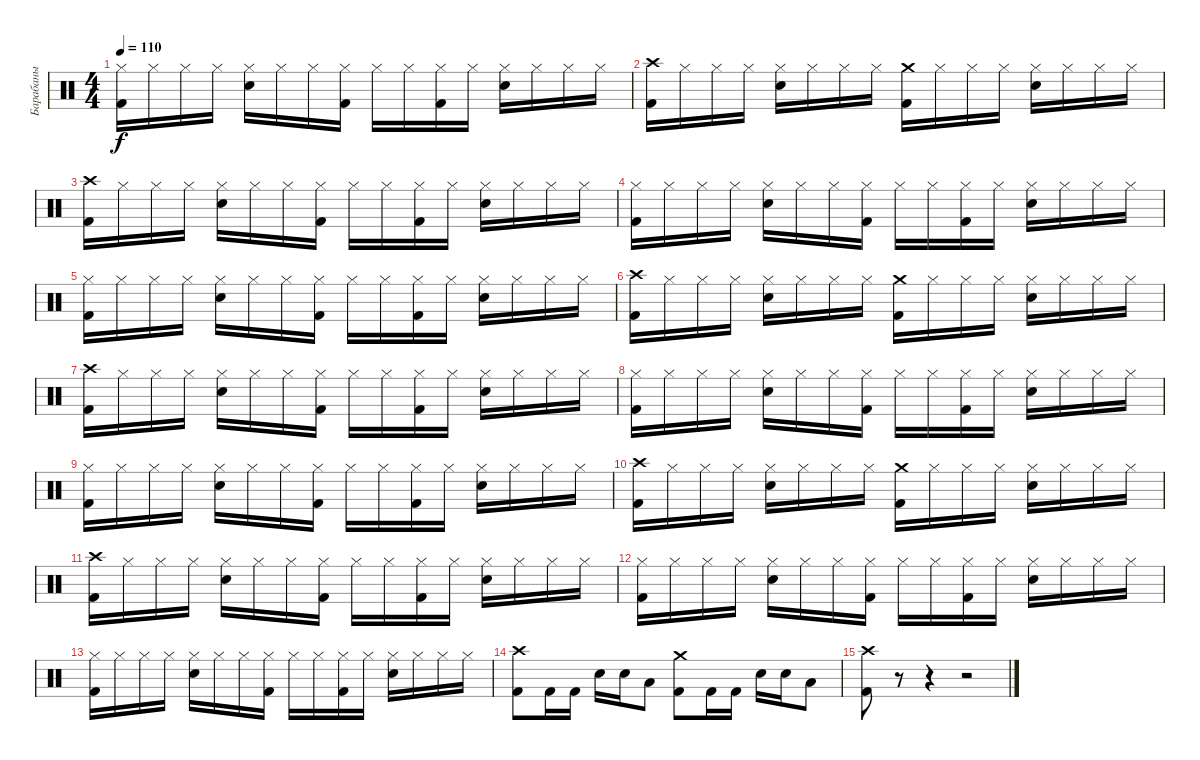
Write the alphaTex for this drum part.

\track ("Барабаны" "Барабаны") {instrument percussion}
\staff {score}
\articulation defaults
\ts (4 4)
\tempo 110
\clef neutral
\ks c
("Hi-Hat (closed)" "Kick (hit) 2").16{dy f} "Hi-Hat (closed)".16 "Hi-Hat (closed)".16 "Hi-Hat (closed)".16 ("Hi-Hat (closed)" "Snare (hit) 2").16 "Hi-Hat (closed)".16 "Hi-Hat (closed)".16 ("Hi-Hat (closed)" "Kick (hit) 2").16 "Hi-Hat (closed)".16 "Hi-Hat (closed)".16 ("Hi-Hat (closed)" "Kick (hit) 2").16 "Hi-Hat (closed)".16 ("Hi-Hat (closed)" "Snare (hit) 2").16 "Hi-Hat (closed)".16 "Hi-Hat (closed)".16 "Hi-Hat (closed)".16 |
("Crash high (hit)" "Kick (hit) 2").16 "Hi-Hat (closed)".16 "Hi-Hat (closed)".16 "Hi-Hat (closed)".16 ("Hi-Hat (closed)" "Snare (hit) 2").16 "Hi-Hat (closed)".16 "Hi-Hat (closed)".16 "Hi-Hat (closed)".16 ("Crash medium (hit)" "Kick (hit) 2").16 "Hi-Hat (closed)".16 "Hi-Hat (closed)".16 "Hi-Hat (closed)".16 ("Hi-Hat (closed)" "Snare (hit) 2").16 "Hi-Hat (closed)".16 "Hi-Hat (closed)".16 "Hi-Hat (closed)".16 |
("Crash high (hit)" "Kick (hit) 2").16 "Hi-Hat (closed)".16 "Hi-Hat (closed)".16 "Hi-Hat (closed)".16 ("Hi-Hat (closed)" "Snare (hit) 2").16 "Hi-Hat (closed)".16 "Hi-Hat (closed)".16 ("Hi-Hat (closed)" "Kick (hit) 2").16 "Hi-Hat (closed)".16 "Hi-Hat (closed)".16 ("Hi-Hat (closed)" "Kick (hit) 2").16 "Hi-Hat (closed)".16 ("Hi-Hat (closed)" "Snare (hit) 2").16 "Hi-Hat (closed)".16 "Hi-Hat (closed)".16 "Hi-Hat (closed)".16 |
("Hi-Hat (closed)" "Kick (hit) 2").16 "Hi-Hat (closed)".16 "Hi-Hat (closed)".16 "Hi-Hat (closed)".16 ("Hi-Hat (closed)" "Snare (hit) 2").16 "Hi-Hat (closed)".16 "Hi-Hat (closed)".16 ("Hi-Hat (closed)" "Kick (hit) 2").16 "Hi-Hat (closed)".16 "Hi-Hat (closed)".16 ("Hi-Hat (closed)" "Kick (hit) 2").16 "Hi-Hat (closed)".16 ("Hi-Hat (closed)" "Snare (hit) 2").16 "Hi-Hat (closed)".16 "Hi-Hat (closed)".16 "Hi-Hat (closed)".16 |
("Hi-Hat (closed)" "Kick (hit) 2").16 "Hi-Hat (closed)".16 "Hi-Hat (closed)".16 "Hi-Hat (closed)".16 ("Hi-Hat (closed)" "Snare (hit) 2").16 "Hi-Hat (closed)".16 "Hi-Hat (closed)".16 ("Hi-Hat (closed)" "Kick (hit) 2").16 "Hi-Hat (closed)".16 "Hi-Hat (closed)".16 ("Hi-Hat (closed)" "Kick (hit) 2").16 "Hi-Hat (closed)".16 ("Hi-Hat (closed)" "Snare (hit) 2").16 "Hi-Hat (closed)".16 "Hi-Hat (closed)".16 "Hi-Hat (closed)".16 |
("Crash high (hit)" "Kick (hit) 2").16 "Hi-Hat (closed)".16 "Hi-Hat (closed)".16 "Hi-Hat (closed)".16 ("Hi-Hat (closed)" "Snare (hit) 2").16 "Hi-Hat (closed)".16 "Hi-Hat (closed)".16 "Hi-Hat (closed)".16 ("Crash medium (hit)" "Kick (hit) 2").16 "Hi-Hat (closed)".16 "Hi-Hat (closed)".16 "Hi-Hat (closed)".16 ("Hi-Hat (closed)" "Snare (hit) 2").16 "Hi-Hat (closed)".16 "Hi-Hat (closed)".16 "Hi-Hat (closed)".16 |
("Crash high (hit)" "Kick (hit) 2").16 "Hi-Hat (closed)".16 "Hi-Hat (closed)".16 "Hi-Hat (closed)".16 ("Hi-Hat (closed)" "Snare (hit) 2").16 "Hi-Hat (closed)".16 "Hi-Hat (closed)".16 ("Hi-Hat (closed)" "Kick (hit) 2").16 "Hi-Hat (closed)".16 "Hi-Hat (closed)".16 ("Hi-Hat (closed)" "Kick (hit) 2").16 "Hi-Hat (closed)".16 ("Hi-Hat (closed)" "Snare (hit) 2").16 "Hi-Hat (closed)".16 "Hi-Hat (closed)".16 "Hi-Hat (closed)".16 |
("Hi-Hat (closed)" "Kick (hit) 2").16 "Hi-Hat (closed)".16 "Hi-Hat (closed)".16 "Hi-Hat (closed)".16 ("Hi-Hat (closed)" "Snare (hit) 2").16 "Hi-Hat (closed)".16 "Hi-Hat (closed)".16 ("Hi-Hat (closed)" "Kick (hit) 2").16 "Hi-Hat (closed)".16 "Hi-Hat (closed)".16 ("Hi-Hat (closed)" "Kick (hit) 2").16 "Hi-Hat (closed)".16 ("Hi-Hat (closed)" "Snare (hit) 2").16 "Hi-Hat (closed)".16 "Hi-Hat (closed)".16 "Hi-Hat (closed)".16 |
("Hi-Hat (closed)" "Kick (hit) 2").16 "Hi-Hat (closed)".16 "Hi-Hat (closed)".16 "Hi-Hat (closed)".16 ("Hi-Hat (closed)" "Snare (hit) 2").16 "Hi-Hat (closed)".16 "Hi-Hat (closed)".16 ("Hi-Hat (closed)" "Kick (hit) 2").16 "Hi-Hat (closed)".16 "Hi-Hat (closed)".16 ("Hi-Hat (closed)" "Kick (hit) 2").16 "Hi-Hat (closed)".16 ("Hi-Hat (closed)" "Snare (hit) 2").16 "Hi-Hat (closed)".16 "Hi-Hat (closed)".16 "Hi-Hat (closed)".16 |
("Crash high (hit)" "Kick (hit) 2").16 "Hi-Hat (closed)".16 "Hi-Hat (closed)".16 "Hi-Hat (closed)".16 ("Hi-Hat (closed)" "Snare (hit) 2").16 "Hi-Hat (closed)".16 "Hi-Hat (closed)".16 "Hi-Hat (closed)".16 ("Crash medium (hit)" "Kick (hit) 2").16 "Hi-Hat (closed)".16 "Hi-Hat (closed)".16 "Hi-Hat (closed)".16 ("Hi-Hat (closed)" "Snare (hit) 2").16 "Hi-Hat (closed)".16 "Hi-Hat (closed)".16 "Hi-Hat (closed)".16 |
("Crash high (hit)" "Kick (hit) 2").16 "Hi-Hat (closed)".16 "Hi-Hat (closed)".16 "Hi-Hat (closed)".16 ("Hi-Hat (closed)" "Snare (hit) 2").16 "Hi-Hat (closed)".16 "Hi-Hat (closed)".16 ("Hi-Hat (closed)" "Kick (hit) 2").16 "Hi-Hat (closed)".16 "Hi-Hat (closed)".16 ("Hi-Hat (closed)" "Kick (hit) 2").16 "Hi-Hat (closed)".16 ("Hi-Hat (closed)" "Snare (hit) 2").16 "Hi-Hat (closed)".16 "Hi-Hat (closed)".16 "Hi-Hat (closed)".16 |
("Hi-Hat (closed)" "Kick (hit) 2").16 "Hi-Hat (closed)".16 "Hi-Hat (closed)".16 "Hi-Hat (closed)".16 ("Hi-Hat (closed)" "Snare (hit) 2").16 "Hi-Hat (closed)".16 "Hi-Hat (closed)".16 ("Hi-Hat (closed)" "Kick (hit) 2").16 "Hi-Hat (closed)".16 "Hi-Hat (closed)".16 ("Hi-Hat (closed)" "Kick (hit) 2").16 "Hi-Hat (closed)".16 ("Hi-Hat (closed)" "Snare (hit) 2").16 "Hi-Hat (closed)".16 "Hi-Hat (closed)".16 "Hi-Hat (closed)".16 |
("Hi-Hat (closed)" "Kick (hit) 2").16 "Hi-Hat (closed)".16 "Hi-Hat (closed)".16 "Hi-Hat (closed)".16 ("Hi-Hat (closed)" "Snare (hit) 2").16 "Hi-Hat (closed)".16 "Hi-Hat (closed)".16 ("Hi-Hat (closed)" "Kick (hit) 2").16 "Hi-Hat (closed)".16 "Hi-Hat (closed)".16 ("Hi-Hat (closed)" "Kick (hit) 2").16 "Hi-Hat (closed)".16 ("Hi-Hat (closed)" "Snare (hit) 2").16 "Hi-Hat (closed)".16 "Hi-Hat (closed)".16 "Hi-Hat (closed)".16 |
("Crash high (hit)" "Kick (hit) 2").8 "Kick (hit) 2".16 "Kick (hit) 2".16 "Snare (hit) 2".16 "Snare (hit) 2".16 "Low Tom (hit)".8 ("Crash medium (hit)" "Kick (hit) 2").8 "Kick (hit) 2".16 "Kick (hit) 2".16 "Snare (hit) 2".16 "Snare (hit) 2".16 "Low Floor Tom (hit)".8 |
("Crash high (hit)" "Kick (hit) 2").8 r.8 r.4 r.2
